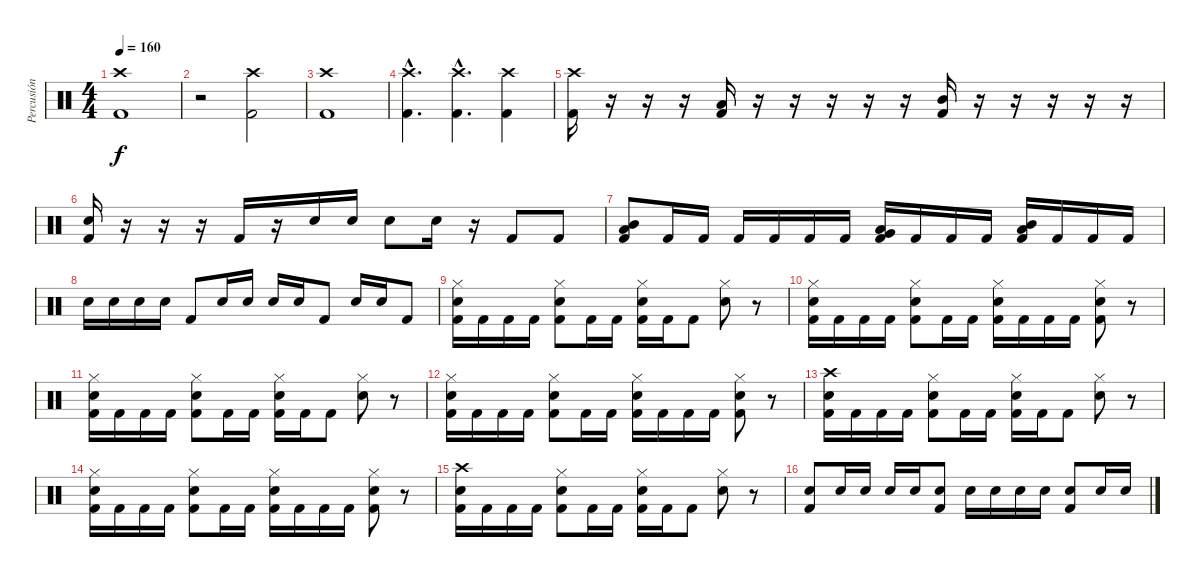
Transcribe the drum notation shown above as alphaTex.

\track ("Percusión" "Percusión") {instrument percussion}
\staff {score}
\articulation defaults
\ts (4 4)
\tempo 160
\clef neutral
\ks c
("Crash high (hit)" "Kick (hit) 2").1{dy f} |
r.2 ("Crash high (hit)" "Kick (hit) 2").2 |
("Crash high (hit)" "Kick (hit) 2").1 |
("Crash high (hit)"{hac} "Kick (hit) 2"{hac}).4{d} ("Crash high (hit)"{hac} "Kick (hit) 2"{hac}).4{d} ("Crash high (hit)" "Kick (hit) 2").4 |
("Crash high (hit)" "Kick (hit) 2").16 r.16 r.16 r.16 ("Low Tom (hit)" "Kick (hit) 2").16 r.16 r.16 r.16 r.16 r.16 ("Mid Tom (hit)" "Kick (hit) 2").16 r.16 r.16 r.16 r.16 r.16 |
("Snare (hit) 2" "Kick (hit) 2").16 r.16 r.16 r.16 "Kick (hit) 2".16 r.16 "Snare (hit) 2".16 "Snare (hit) 2".16 "Snare (hit) 2".8 "Snare (hit) 2".16 r.16 "Kick (hit) 2".8 "Kick (hit) 2".8 |
("Mid Tom (hit)" "Low Tom (hit)" "Kick (hit) 2").8 "Kick (hit) 2".16 "Kick (hit) 2".16 "Kick (hit) 2".16 "Kick (hit) 2".16 "Kick (hit) 2".16 "Kick (hit) 2".16 ("Low Tom (hit)" "Very Low Tom (hit)" "Kick (hit) 2").16 "Kick (hit) 2".16 "Kick (hit) 2".16 "Kick (hit) 2".16 ("Mid Tom (hit)" "Low Tom (hit)" "Kick (hit) 2").16 "Kick (hit) 2".16 "Kick (hit) 2".16 "Kick (hit) 2".16 |
"Snare (hit) 2".16 "Snare (hit) 2".16 "Snare (hit) 2".16 "Snare (hit) 2".16 "Kick (hit) 2".8 "Snare (hit) 2".16 "Snare (hit) 2".16 "Snare (hit) 2".16 "Snare (hit) 2".16 "Kick (hit) 2".8 "Snare (hit) 2".16 "Snare (hit) 2".16 "Kick (hit) 2".8 |
("Hi-Hat (closed)" "Snare (hit) 2" "Kick (hit) 2").16 "Kick (hit) 2".16 "Kick (hit) 2".16 "Kick (hit) 2".16 ("Hi-Hat (closed)" "Snare (hit) 2" "Kick (hit) 2").8 "Kick (hit) 2".16 "Kick (hit) 2".16 ("Hi-Hat (closed)" "Snare (hit) 2" "Kick (hit) 2").16 "Kick (hit) 2".16 "Kick (hit) 2".8 ("Hi-Hat (closed)" "Snare (hit) 2").8 r.8 |
("Hi-Hat (closed)" "Snare (hit) 2" "Kick (hit) 2").16 "Kick (hit) 2".16 "Kick (hit) 2".16 "Kick (hit) 2".16 ("Hi-Hat (closed)" "Snare (hit) 2" "Kick (hit) 2").8 "Kick (hit) 2".16 "Kick (hit) 2".16 ("Hi-Hat (closed)" "Snare (hit) 2" "Kick (hit) 2").16 "Kick (hit) 2".16 "Kick (hit) 2".16 "Kick (hit) 2".16 ("Hi-Hat (closed)" "Snare (hit) 2" "Kick (hit) 2").8 r.8 |
("Hi-Hat (closed)" "Snare (hit) 2" "Kick (hit) 2").16 "Kick (hit) 2".16 "Kick (hit) 2".16 "Kick (hit) 2".16 ("Hi-Hat (closed)" "Snare (hit) 2" "Kick (hit) 2").8 "Kick (hit) 2".16 "Kick (hit) 2".16 ("Hi-Hat (closed)" "Snare (hit) 2" "Kick (hit) 2").16 "Kick (hit) 2".16 "Kick (hit) 2".8 ("Hi-Hat (closed)" "Snare (hit) 2").8 r.8 |
("Hi-Hat (closed)" "Snare (hit) 2" "Kick (hit) 2").16 "Kick (hit) 2".16 "Kick (hit) 2".16 "Kick (hit) 2".16 ("Hi-Hat (closed)" "Snare (hit) 2" "Kick (hit) 2").8 "Kick (hit) 2".16 "Kick (hit) 2".16 ("Hi-Hat (closed)" "Snare (hit) 2" "Kick (hit) 2").16 "Kick (hit) 2".16 "Kick (hit) 2".16 "Kick (hit) 2".16 ("Hi-Hat (closed)" "Snare (hit) 2" "Kick (hit) 2").8 r.8 |
("Crash high (hit)" "Snare (hit) 2" "Kick (hit) 2").16 "Kick (hit) 2".16 "Kick (hit) 2".16 "Kick (hit) 2".16 ("Hi-Hat (closed)" "Snare (hit) 2" "Kick (hit) 2").8 "Kick (hit) 2".16 "Kick (hit) 2".16 ("Hi-Hat (closed)" "Snare (hit) 2" "Kick (hit) 2").16 "Kick (hit) 2".16 "Kick (hit) 2".8 ("Hi-Hat (closed)" "Snare (hit) 2").8 r.8 |
("Hi-Hat (closed)" "Snare (hit) 2" "Kick (hit) 2").16 "Kick (hit) 2".16 "Kick (hit) 2".16 "Kick (hit) 2".16 ("Hi-Hat (closed)" "Snare (hit) 2" "Kick (hit) 2").8 "Kick (hit) 2".16 "Kick (hit) 2".16 ("Hi-Hat (closed)" "Snare (hit) 2" "Kick (hit) 2").16 "Kick (hit) 2".16 "Kick (hit) 2".16 "Kick (hit) 2".16 ("Hi-Hat (closed)" "Snare (hit) 2" "Kick (hit) 2").8 r.8 |
("Crash high (hit)" "Snare (hit) 2" "Kick (hit) 2").16 "Kick (hit) 2".16 "Kick (hit) 2".16 "Kick (hit) 2".16 ("Hi-Hat (closed)" "Snare (hit) 2" "Kick (hit) 2").8 "Kick (hit) 2".16 "Kick (hit) 2".16 ("Hi-Hat (closed)" "Snare (hit) 2" "Kick (hit) 2").16 "Kick (hit) 2".16 "Kick (hit) 2".8 ("Hi-Hat (closed)" "Snare (hit) 2").8 r.8 |
("Snare (hit) 2" "Kick (hit) 2").8 "Snare (hit) 2".16 "Snare (hit) 2".16 "Snare (hit) 2".16 "Snare (hit) 2".16 ("Snare (hit) 2" "Kick (hit) 2").8 "Snare (hit) 2".16 "Snare (hit) 2".16 "Snare (hit) 2".16 "Snare (hit) 2".16 ("Snare (hit) 2" "Kick (hit) 2").8 "Snare (hit) 2".16 "Snare (hit) 2".16
